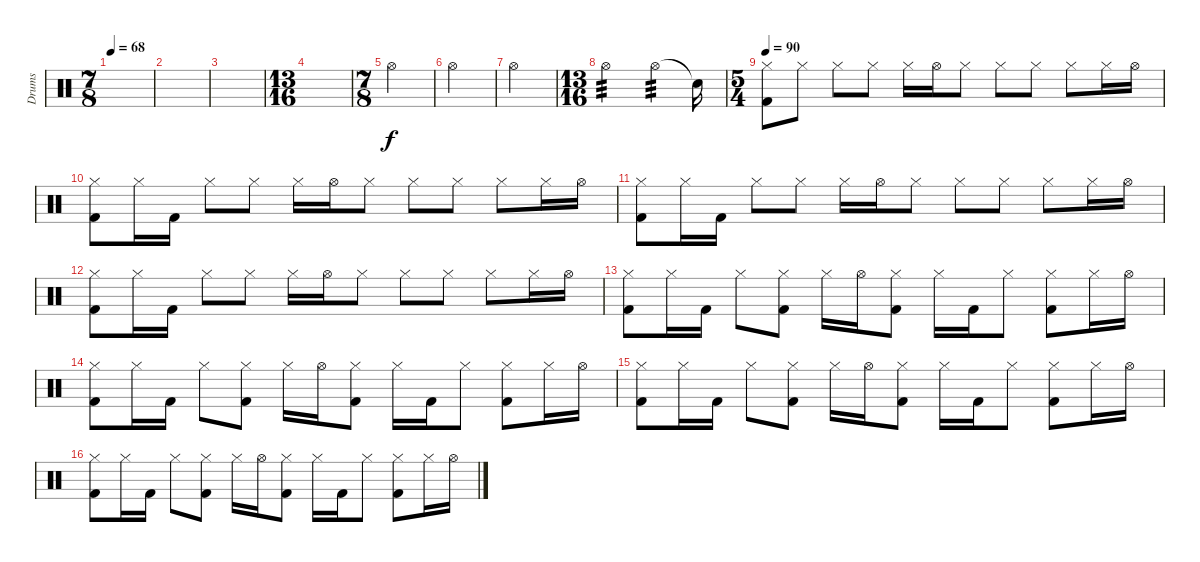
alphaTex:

\track ("Drums" "Drums") {instrument percussion}
\staff {score}
\articulation defaults
\ts (7 8)
\tempo 68
\clef neutral
\ks c
|
|
|
\ts (13 16)
|
\ts (7 8)
"Hi-Hat (open)".4{volume 3} |
"Hi-Hat (open)".4 |
"Hi-Hat (open)".4 |
\ts (13 16)
"Hi-Hat (open)".2{tp 3 volume 8} "Hi-Hat (open)".4{tp 3 volume 13} "Snare (hit)"{t}.16 |
\ts (5 4)
\tempo 90
("Kick (hit) 2" "Hi-Hat (closed)").8 "Hi-Hat (closed)".8 "Hi-Hat (closed)".8 "Hi-Hat (closed)".8 "Hi-Hat (closed)".16 "Hi-Hat (open)".16 "Hi-Hat (closed)".8 "Hi-Hat (closed)".8 "Hi-Hat (closed)".8 "Hi-Hat (closed)".8 "Hi-Hat (closed)".16 "Hi-Hat (open)".16 |
("Kick (hit) 2" "Hi-Hat (closed)").8 "Hi-Hat (closed)".16 "Kick (hit) 2".16 "Hi-Hat (closed)".8 "Hi-Hat (closed)".8 "Hi-Hat (closed)".16 "Hi-Hat (open)".16 "Hi-Hat (closed)".8 "Hi-Hat (closed)".8 "Hi-Hat (closed)".8 "Hi-Hat (closed)".8 "Hi-Hat (closed)".16 "Hi-Hat (open)".16 |
("Kick (hit) 2" "Hi-Hat (closed)").8 "Hi-Hat (closed)".16 "Kick (hit) 2".16 "Hi-Hat (closed)".8 "Hi-Hat (closed)".8 "Hi-Hat (closed)".16 "Hi-Hat (open)".16 "Hi-Hat (closed)".8 "Hi-Hat (closed)".8 "Hi-Hat (closed)".8 "Hi-Hat (closed)".8 "Hi-Hat (closed)".16 "Hi-Hat (open)".16 |
("Kick (hit) 2" "Hi-Hat (closed)").8 "Hi-Hat (closed)".16 "Kick (hit) 2".16 "Hi-Hat (closed)".8 "Hi-Hat (closed)".8 "Hi-Hat (closed)".16 "Hi-Hat (open)".16 "Hi-Hat (closed)".8 "Hi-Hat (closed)".8 "Hi-Hat (closed)".8 "Hi-Hat (closed)".8 "Hi-Hat (closed)".16 "Hi-Hat (open)".16 |
("Kick (hit) 2" "Hi-Hat (closed)").8 "Hi-Hat (closed)".16 "Kick (hit) 2".16 "Hi-Hat (closed)".8 ("Kick (hit) 2" "Hi-Hat (closed)").8 "Hi-Hat (closed)".16 "Hi-Hat (open)".16 ("Kick (hit) 2" "Hi-Hat (closed)").8 "Hi-Hat (closed)".16 "Kick (hit) 2".16 "Hi-Hat (closed)".8 ("Kick (hit) 2" "Hi-Hat (closed)").8 "Hi-Hat (closed)".16 "Hi-Hat (open)".16 |
("Kick (hit) 2" "Hi-Hat (closed)").8 "Hi-Hat (closed)".16 "Kick (hit) 2".16 "Hi-Hat (closed)".8 ("Kick (hit) 2" "Hi-Hat (closed)").8 "Hi-Hat (closed)".16 "Hi-Hat (open)".16 ("Kick (hit) 2" "Hi-Hat (closed)").8 "Hi-Hat (closed)".16 "Kick (hit) 2".16 "Hi-Hat (closed)".8 ("Kick (hit) 2" "Hi-Hat (closed)").8 "Hi-Hat (closed)".16 "Hi-Hat (open)".16 |
("Kick (hit) 2" "Hi-Hat (closed)").8 "Hi-Hat (closed)".16 "Kick (hit) 2".16 "Hi-Hat (closed)".8 ("Kick (hit) 2" "Hi-Hat (closed)").8 "Hi-Hat (closed)".16 "Hi-Hat (open)".16 ("Kick (hit) 2" "Hi-Hat (closed)").8 "Hi-Hat (closed)".16 "Kick (hit) 2".16 "Hi-Hat (closed)".8 ("Kick (hit) 2" "Hi-Hat (closed)").8 "Hi-Hat (closed)".16 "Hi-Hat (open)".16 |
("Kick (hit) 2" "Hi-Hat (closed)").8 "Hi-Hat (closed)".16 "Kick (hit) 2".16 "Hi-Hat (closed)".8 ("Kick (hit) 2" "Hi-Hat (closed)").8 "Hi-Hat (closed)".16 "Hi-Hat (open)".16 ("Kick (hit) 2" "Hi-Hat (closed)").8 "Hi-Hat (closed)".16 "Kick (hit) 2".16 "Hi-Hat (closed)".8 ("Kick (hit) 2" "Hi-Hat (closed)").8 "Hi-Hat (closed)".16 "Hi-Hat (open)".16
